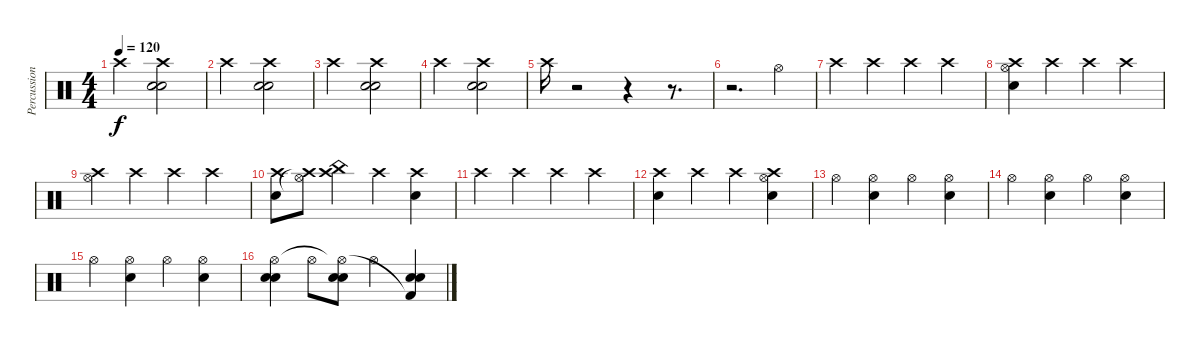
\track ("Percussion" "Percussion") {instrument percussion}
\staff {score}
\articulation defaults
\ts (4 4)
\tempo 120
\clef neutral
\ks c "Crash high (hit)".2{dy f}
("Electric Snare (hit)" "Crash high (hit)" "Snare (hit) 2").2 |
"Crash high (hit)".2 ("Electric Snare (hit)" "Crash high (hit)" "Snare (hit) 2").2 |
"Crash high (hit)".2 ("Electric Snare (hit)" "Crash high (hit)" "Snare (hit) 2").2 |
"Crash high (hit)".2 ("Electric Snare (hit)" "Crash high (hit)" "Snare (hit) 2").2 |
"Crash high (hit)".16 r.2 r.4 r.8{d} |
r.2{d} "Hi-Hat (open)".4 |
"Crash high (hit)".4 "Crash high (hit)".4 "Crash high (hit)".4 "Crash high (hit)".4 |
("Hi-Hat (open)" "Crash high (hit)" "Electric Snare (hit)").4 "Crash high (hit)".4 "Crash high (hit)".4 "Crash high (hit)".4 |
("Hi-Hat (open)" "Crash high (hit)").4 "Crash high (hit)".4 "Crash high (hit)".4 "Crash high (hit)".4 |
("Crash high (hit)" "Electric Snare (hit)").8 ("Hi-Hat (open)" "Crash high (hit)"{t}).8 ("Crash high (hit)" "China (hit)").4 "Crash high (hit)".4 ("Crash high (hit)" "Electric Snare (hit)").4 |
"Crash high (hit)".4 "Crash high (hit)".4 "Crash high (hit)".4 "Crash high (hit)".4 |
("Crash high (hit)" "Electric Snare (hit)").4 "Crash high (hit)".4 "Crash high (hit)".4 ("Electric Snare (hit)" "Crash high (hit)" "Hi-Hat (open)").4 |
"Hi-Hat (open)".4 ("Hi-Hat (open)" "Electric Snare (hit)").4 "Hi-Hat (open)".4 ("Hi-Hat (open)" "Electric Snare (hit)").4 |
"Hi-Hat (open)".4 ("Hi-Hat (open)" "Electric Snare (hit)").4 "Hi-Hat (open)".4 ("Hi-Hat (open)" "Electric Snare (hit)").4 |
"Hi-Hat (open)".4 ("Hi-Hat (open)" "Electric Snare (hit)").4 "Hi-Hat (open)".4 ("Hi-Hat (open)" "Electric Snare (hit)").4 |
("Electric Snare (hit)" "Hi-Hat (open)" "Electric Snare (hit)").4 "Hi-Hat (open)".8 ("Electric Snare (hit)" "Hi-Hat (open)"{t} "Electric Snare (hit)").8 "Hi-Hat (open)".4 ("Electric Snare (hit)" "Kick (hit) 2"{t} "Electric Snare (hit)").4
